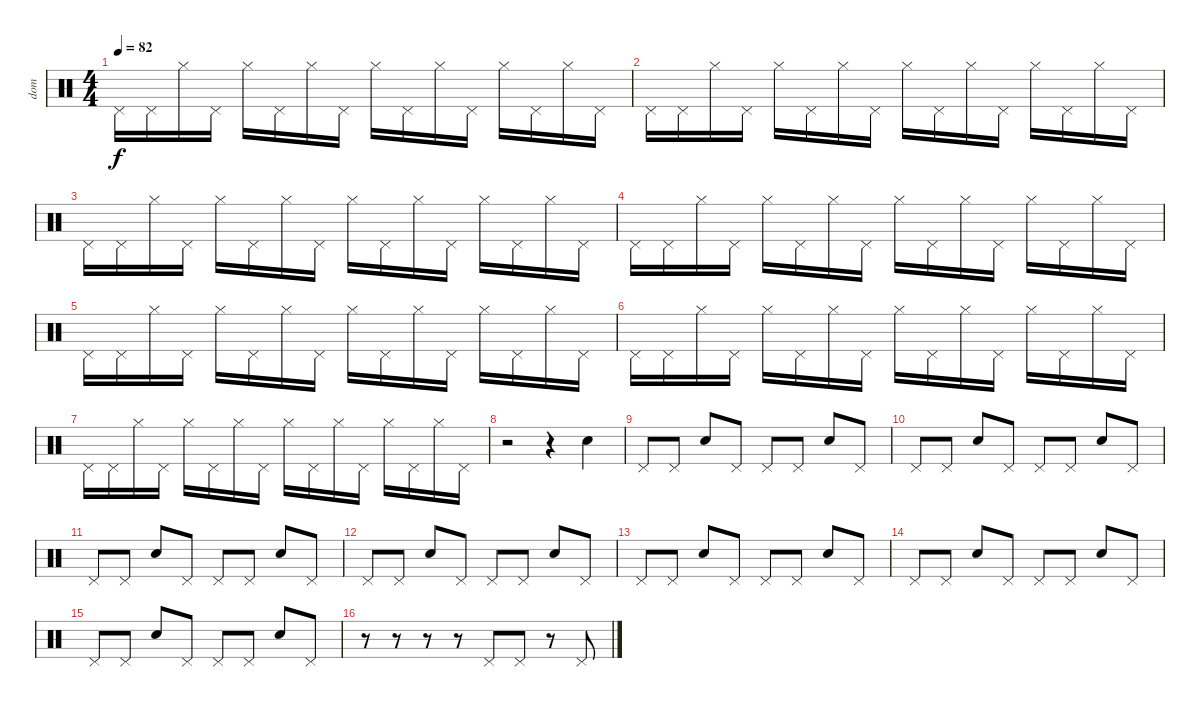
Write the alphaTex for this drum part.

\track ("dom" "dom") {instrument percussion}
\staff {score}
\articulation defaults
\ts (4 4)
\tempo 82
\clef neutral
\ks c "Pedal Hi-Hat (hit)".16{dy f} "Pedal Hi-Hat (hit)".16 "Hi-Hat (closed)".16 "Pedal Hi-Hat (hit)".16 "Hi-Hat (closed)".16 "Pedal Hi-Hat (hit)".16 "Hi-Hat (closed)".16 "Pedal Hi-Hat (hit)".16 "Hi-Hat (closed)".16 "Pedal Hi-Hat (hit)".16 "Hi-Hat (closed)".16 "Pedal Hi-Hat (hit)".16 "Hi-Hat (closed)".16 "Pedal Hi-Hat (hit)".16 "Hi-Hat (closed)".16 "Pedal Hi-Hat (hit)".16
|
"Pedal Hi-Hat (hit)".16 "Pedal Hi-Hat (hit)".16 "Hi-Hat (closed)".16 "Pedal Hi-Hat (hit)".16 "Hi-Hat (closed)".16 "Pedal Hi-Hat (hit)".16 "Hi-Hat (closed)".16 "Pedal Hi-Hat (hit)".16 "Hi-Hat (closed)".16 "Pedal Hi-Hat (hit)".16 "Hi-Hat (closed)".16 "Pedal Hi-Hat (hit)".16 "Hi-Hat (closed)".16 "Pedal Hi-Hat (hit)".16 "Hi-Hat (closed)".16 "Pedal Hi-Hat (hit)".16 |
"Pedal Hi-Hat (hit)".16 "Pedal Hi-Hat (hit)".16 "Hi-Hat (closed)".16 "Pedal Hi-Hat (hit)".16 "Hi-Hat (closed)".16 "Pedal Hi-Hat (hit)".16 "Hi-Hat (closed)".16 "Pedal Hi-Hat (hit)".16 "Hi-Hat (closed)".16 "Pedal Hi-Hat (hit)".16 "Hi-Hat (closed)".16 "Pedal Hi-Hat (hit)".16 "Hi-Hat (closed)".16 "Pedal Hi-Hat (hit)".16 "Hi-Hat (closed)".16 "Pedal Hi-Hat (hit)".16 |
"Pedal Hi-Hat (hit)".16 "Pedal Hi-Hat (hit)".16 "Hi-Hat (closed)".16 "Pedal Hi-Hat (hit)".16 "Hi-Hat (closed)".16 "Pedal Hi-Hat (hit)".16 "Hi-Hat (closed)".16 "Pedal Hi-Hat (hit)".16 "Hi-Hat (closed)".16 "Pedal Hi-Hat (hit)".16 "Hi-Hat (closed)".16 "Pedal Hi-Hat (hit)".16 "Hi-Hat (closed)".16 "Pedal Hi-Hat (hit)".16 "Hi-Hat (closed)".16 "Pedal Hi-Hat (hit)".16 |
"Pedal Hi-Hat (hit)".16 "Pedal Hi-Hat (hit)".16 "Hi-Hat (closed)".16 "Pedal Hi-Hat (hit)".16 "Hi-Hat (closed)".16 "Pedal Hi-Hat (hit)".16 "Hi-Hat (closed)".16 "Pedal Hi-Hat (hit)".16 "Hi-Hat (closed)".16 "Pedal Hi-Hat (hit)".16 "Hi-Hat (closed)".16 "Pedal Hi-Hat (hit)".16 "Hi-Hat (closed)".16 "Pedal Hi-Hat (hit)".16 "Hi-Hat (closed)".16 "Pedal Hi-Hat (hit)".16 |
"Pedal Hi-Hat (hit)".16 "Pedal Hi-Hat (hit)".16 "Hi-Hat (closed)".16 "Pedal Hi-Hat (hit)".16 "Hi-Hat (closed)".16 "Pedal Hi-Hat (hit)".16 "Hi-Hat (closed)".16 "Pedal Hi-Hat (hit)".16 "Hi-Hat (closed)".16 "Pedal Hi-Hat (hit)".16 "Hi-Hat (closed)".16 "Pedal Hi-Hat (hit)".16 "Hi-Hat (closed)".16 "Pedal Hi-Hat (hit)".16 "Hi-Hat (closed)".16 "Pedal Hi-Hat (hit)".16 |
"Pedal Hi-Hat (hit)".16 "Pedal Hi-Hat (hit)".16 "Hi-Hat (closed)".16 "Pedal Hi-Hat (hit)".16 "Hi-Hat (closed)".16 "Pedal Hi-Hat (hit)".16 "Hi-Hat (closed)".16 "Pedal Hi-Hat (hit)".16 "Hi-Hat (closed)".16 "Pedal Hi-Hat (hit)".16 "Hi-Hat (closed)".16 "Pedal Hi-Hat (hit)".16 "Hi-Hat (closed)".16 "Pedal Hi-Hat (hit)".16 "Hi-Hat (closed)".16 "Pedal Hi-Hat (hit)".16 |
r.2 r.4 "Snare (hit) 2".4 |
"Pedal Hi-Hat (hit)".8 "Pedal Hi-Hat (hit)".8 "Snare (hit) 2".8 "Pedal Hi-Hat (hit)".8 "Pedal Hi-Hat (hit)".8 "Pedal Hi-Hat (hit)".8 "Snare (hit) 2".8 "Pedal Hi-Hat (hit)".8 |
"Pedal Hi-Hat (hit)".8 "Pedal Hi-Hat (hit)".8 "Snare (hit) 2".8 "Pedal Hi-Hat (hit)".8 "Pedal Hi-Hat (hit)".8 "Pedal Hi-Hat (hit)".8 "Snare (hit) 2".8 "Pedal Hi-Hat (hit)".8 |
"Pedal Hi-Hat (hit)".8 "Pedal Hi-Hat (hit)".8 "Snare (hit) 2".8 "Pedal Hi-Hat (hit)".8 "Pedal Hi-Hat (hit)".8 "Pedal Hi-Hat (hit)".8 "Snare (hit) 2".8 "Pedal Hi-Hat (hit)".8 |
"Pedal Hi-Hat (hit)".8 "Pedal Hi-Hat (hit)".8 "Snare (hit) 2".8 "Pedal Hi-Hat (hit)".8 "Pedal Hi-Hat (hit)".8 "Pedal Hi-Hat (hit)".8 "Snare (hit) 2".8 "Pedal Hi-Hat (hit)".8 |
"Pedal Hi-Hat (hit)".8 "Pedal Hi-Hat (hit)".8 "Snare (hit) 2".8 "Pedal Hi-Hat (hit)".8 "Pedal Hi-Hat (hit)".8 "Pedal Hi-Hat (hit)".8 "Snare (hit) 2".8 "Pedal Hi-Hat (hit)".8 |
"Pedal Hi-Hat (hit)".8 "Pedal Hi-Hat (hit)".8 "Snare (hit) 2".8 "Pedal Hi-Hat (hit)".8 "Pedal Hi-Hat (hit)".8 "Pedal Hi-Hat (hit)".8 "Snare (hit) 2".8 "Pedal Hi-Hat (hit)".8 |
"Pedal Hi-Hat (hit)".8 "Pedal Hi-Hat (hit)".8 "Snare (hit) 2".8 "Pedal Hi-Hat (hit)".8 "Pedal Hi-Hat (hit)".8 "Pedal Hi-Hat (hit)".8 "Snare (hit) 2".8 "Pedal Hi-Hat (hit)".8 |
r.8 r.8 r.8 r.8 "Pedal Hi-Hat (hit)".8 "Pedal Hi-Hat (hit)".8 r.8 "Pedal Hi-Hat (hit)".8
